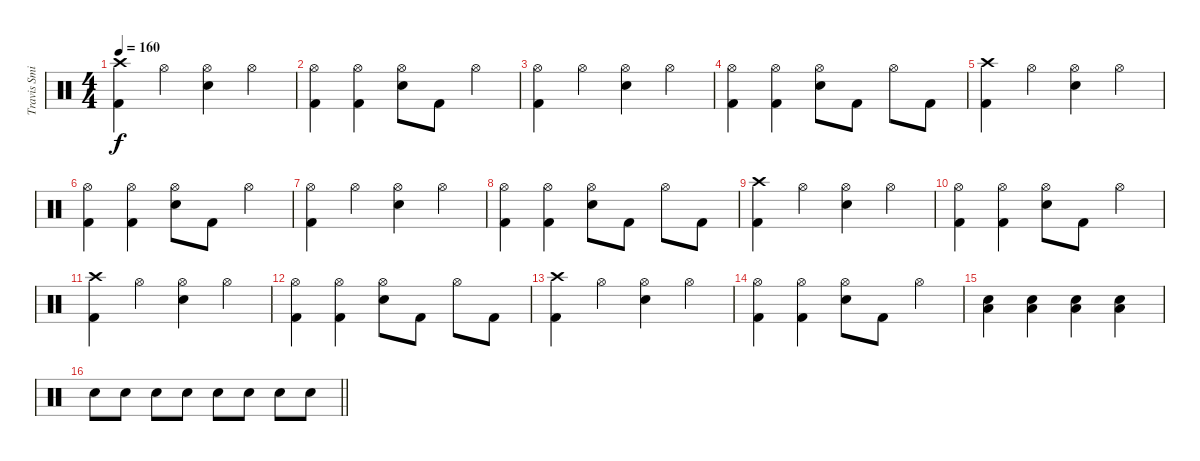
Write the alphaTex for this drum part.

\track ("Travis Smith" "Travis Smi") {instrument percussion}
\staff {score}
\articulation defaults
\ts (4 4)
\tempo 160
\clef neutral
\ks c
("Crash high (hit)" "Kick (hit) 2").4{dy f} "Hi-Hat (open)".4 ("Hi-Hat (open)" "Electric Snare (hit)").4 "Hi-Hat (open)".4 |
("Hi-Hat (open)" "Kick (hit) 2").4 ("Hi-Hat (open)" "Kick (hit) 2").4 ("Hi-Hat (open)" "Electric Snare (hit)").8 "Kick (hit) 2".8 "Hi-Hat (open)".4 |
("Hi-Hat (open)" "Kick (hit) 2").4 "Hi-Hat (open)".4 ("Hi-Hat (open)" "Electric Snare (hit)").4 "Hi-Hat (open)".4 |
("Hi-Hat (open)" "Kick (hit) 2").4 ("Hi-Hat (open)" "Kick (hit) 2").4 ("Hi-Hat (open)" "Electric Snare (hit)").8 "Kick (hit) 2".8 "Hi-Hat (open)".8 "Kick (hit) 2".8 |
("Crash high (hit)" "Kick (hit) 2").4 "Hi-Hat (open)".4 ("Hi-Hat (open)" "Electric Snare (hit)").4 "Hi-Hat (open)".4 |
("Hi-Hat (open)" "Kick (hit) 2").4 ("Hi-Hat (open)" "Kick (hit) 2").4 ("Hi-Hat (open)" "Electric Snare (hit)").8 "Kick (hit) 2".8 "Hi-Hat (open)".4 |
("Hi-Hat (open)" "Kick (hit) 2").4 "Hi-Hat (open)".4 ("Hi-Hat (open)" "Electric Snare (hit)").4 "Hi-Hat (open)".4 |
("Hi-Hat (open)" "Kick (hit) 2").4 ("Hi-Hat (open)" "Kick (hit) 2").4 ("Hi-Hat (open)" "Electric Snare (hit)").8 "Kick (hit) 2".8 "Hi-Hat (open)".8 "Kick (hit) 2".8 |
("Crash high (hit)" "Kick (hit) 2").4 "Hi-Hat (open)".4 ("Hi-Hat (open)" "Electric Snare (hit)").4 "Hi-Hat (open)".4 |
("Hi-Hat (open)" "Kick (hit) 2").4 ("Hi-Hat (open)" "Kick (hit) 2").4 ("Hi-Hat (open)" "Electric Snare (hit)").8 "Kick (hit) 2".8 "Hi-Hat (open)".4 |
("Crash high (hit)" "Kick (hit) 2").4 "Hi-Hat (open)".4 ("Hi-Hat (open)" "Electric Snare (hit)").4 "Hi-Hat (open)".4 |
("Hi-Hat (open)" "Kick (hit) 2").4 ("Hi-Hat (open)" "Kick (hit) 2").4 ("Hi-Hat (open)" "Electric Snare (hit)").8 "Kick (hit) 2".8 "Hi-Hat (open)".8 "Kick (hit) 2".8 |
("Crash high (hit)" "Kick (hit) 2").4 "Hi-Hat (open)".4 ("Hi-Hat (open)" "Electric Snare (hit)").4 "Hi-Hat (open)".4 |
("Hi-Hat (open)" "Kick (hit) 2").4 ("Hi-Hat (open)" "Kick (hit) 2").4 ("Hi-Hat (open)" "Electric Snare (hit)").8 "Kick (hit) 2".8 "Hi-Hat (open)".4 |
("Electric Snare (hit)" "Low Tom (hit)").4 ("Electric Snare (hit)" "Low Tom (hit)").4 ("Electric Snare (hit)" "Low Tom (hit)").4 ("Electric Snare (hit)" "Low Tom (hit)").4 |
\barLineRight lightlight "Electric Snare (hit)".8 "Electric Snare (hit)".8 "Electric Snare (hit)".8 "Electric Snare (hit)".8 "Electric Snare (hit)".8 "Electric Snare (hit)".8 "Electric Snare (hit)".8 "Electric Snare (hit)".8
